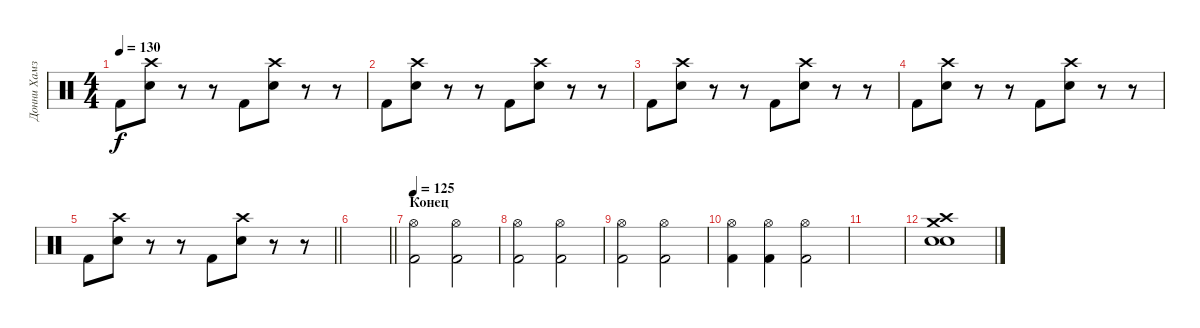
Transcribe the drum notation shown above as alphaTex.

\track ("Донни Хамзик" "Донни Хамз") {instrument percussion}
\staff {score}
\articulation defaults
\ts (4 4)
\tempo 130
\clef neutral
\ks c "Kick (hit) 2".8{dy f}
("Crash high (hit)" "Snare (hit) 2").8 r.8 r.8 "Kick (hit) 2".8 ("Crash high (hit)" "Snare (hit) 2").8 r.8 r.8 |
"Kick (hit) 2".8 ("Crash high (hit)" "Snare (hit) 2").8 r.8 r.8 "Kick (hit) 2".8 ("Crash high (hit)" "Snare (hit) 2").8 r.8 r.8 |
"Kick (hit) 2".8 ("Crash high (hit)" "Snare (hit) 2").8 r.8 r.8 "Kick (hit) 2".8 ("Crash high (hit)" "Snare (hit) 2").8 r.8 r.8 |
"Kick (hit) 2".8 ("Crash high (hit)" "Snare (hit) 2").8 r.8 r.8 "Kick (hit) 2".8 ("Crash high (hit)" "Snare (hit) 2").8 r.8 r.8 |
\barLineRight lightlight "Kick (hit) 2".8
("Crash high (hit)" "Snare (hit) 2").8 r.8 r.8 "Kick (hit) 2".8 ("Crash high (hit)" "Snare (hit) 2").8 r.8 r.8 |
\section ("" "")
\barLineRight lightlight
|
\section ("" "Конец")
\tempo 125
("Hi-Hat (open)" "Kick (hit) 2").2 ("Hi-Hat (open)" "Kick (hit) 2").2 |
("Hi-Hat (open)" "Kick (hit) 2").2 ("Hi-Hat (open)" "Kick (hit) 2").2 |
("Hi-Hat (open)" "Kick (hit) 2").2 ("Hi-Hat (open)" "Kick (hit) 2").2 |
("Hi-Hat (open)" "Kick (hit) 2").4 ("Hi-Hat (open)" "Kick (hit) 2").4 ("Hi-Hat (open)" "Kick (hit) 2").2 |
|
("Crash medium (hit)" "Crash high (hit)" "Snare (hit) 2" "Electric Snare (hit)").1
